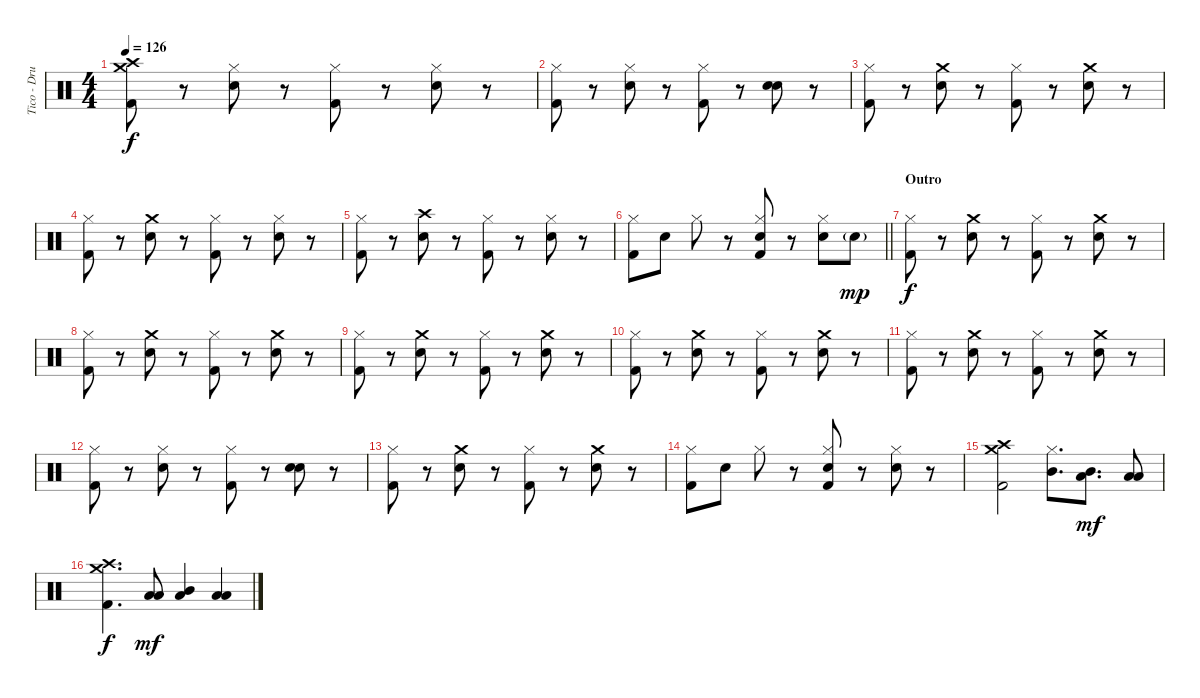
\track ("Tico - Drums" "Tico - Dru") {instrument percussion}
\staff {score}
\articulation defaults
\ts (4 4)
\tempo 126
\clef neutral
\ks c
("Crash medium (hit)" "Kick (hit) 2" "Crash high (hit)").8{dy f} r.8 ("Hi-Hat (closed)" "Snare (hit) 2").8 r.8 ("Hi-Hat (closed)" "Kick (hit) 2").8 r.8 ("Hi-Hat (closed)" "Snare (hit) 2").8 r.8 |
("Hi-Hat (closed)" "Kick (hit) 2").8 r.8 ("Hi-Hat (closed)" "Snare (hit) 2").8 r.8 ("Hi-Hat (closed)" "Kick (hit) 2").8 r.8 ("Snare (hit) 2" "Snare (hit) 2").8 r.8 |
("Hi-Hat (closed)" "Kick (hit) 2").8 r.8 ("Snare (hit) 2" "Crash medium (hit)").8 r.8 ("Hi-Hat (closed)" "Kick (hit) 2").8 r.8 ("Snare (hit) 2" "Crash medium (hit)").8 r.8 |
("Hi-Hat (closed)" "Kick (hit) 2").8 r.8 ("Snare (hit) 2" "Crash medium (hit)").8 r.8 ("Hi-Hat (closed)" "Kick (hit) 2").8 r.8 ("Hi-Hat (closed)" "Snare (hit) 2").8 r.8 |
("Hi-Hat (closed)" "Kick (hit) 2").8 r.8 ("Snare (hit) 2" "Crash high (hit)").8 r.8 ("Hi-Hat (closed)" "Kick (hit) 2").8 r.8 ("Hi-Hat (closed)" "Snare (hit) 2").8 r.8 |
\barLineRight lightlight
("Hi-Hat (closed)" "Kick (hit) 2").8 "Snare (hit) 2".8 "Hi-Hat (closed)".8 r.8 ("Hi-Hat (closed)" "Snare (hit) 2" "Kick (hit) 2").8 r.8 ("Hi-Hat (closed)" "Snare (hit) 2").8 "Snare (hit) 2"{g}.8{dy mp} |
\section ("" "Outro")
("Hi-Hat (closed)" "Kick (hit) 2").8{dy f} r.8 ("Snare (hit) 2" "Crash medium (hit)").8 r.8 ("Hi-Hat (closed)" "Kick (hit) 2").8 r.8 ("Snare (hit) 2" "Crash medium (hit)").8 r.8 |
("Hi-Hat (closed)" "Kick (hit) 2").8 r.8 ("Snare (hit) 2" "Crash medium (hit)").8 r.8 ("Hi-Hat (closed)" "Kick (hit) 2").8 r.8 ("Snare (hit) 2" "Crash medium (hit)").8 r.8 |
("Hi-Hat (closed)" "Kick (hit) 2").8 r.8 ("Snare (hit) 2" "Crash medium (hit)").8 r.8 ("Hi-Hat (closed)" "Kick (hit) 2").8 r.8 ("Snare (hit) 2" "Crash medium (hit)").8 r.8 |
("Hi-Hat (closed)" "Kick (hit) 2").8 r.8 ("Snare (hit) 2" "Crash medium (hit)").8 r.8 ("Hi-Hat (closed)" "Kick (hit) 2").8 r.8 ("Snare (hit) 2" "Crash medium (hit)").8 r.8 |
("Hi-Hat (closed)" "Kick (hit) 2").8 r.8 ("Snare (hit) 2" "Crash medium (hit)").8 r.8 ("Hi-Hat (closed)" "Kick (hit) 2").8 r.8 ("Snare (hit) 2" "Crash medium (hit)").8 r.8 |
("Hi-Hat (closed)" "Kick (hit) 2").8 r.8 ("Hi-Hat (closed)" "Snare (hit) 2").8 r.8 ("Hi-Hat (closed)" "Kick (hit) 2").8 r.8 ("Snare (hit) 2" "Snare (hit) 2").8 r.8 |
("Hi-Hat (closed)" "Kick (hit) 2").8 r.8 ("Snare (hit) 2" "Crash medium (hit)").8 r.8 ("Hi-Hat (closed)" "Kick (hit) 2").8 r.8 ("Snare (hit) 2" "Crash medium (hit)").8 r.8 |
("Hi-Hat (closed)" "Kick (hit) 2").8 "Snare (hit) 2".8 "Hi-Hat (closed)".8 r.8 ("Hi-Hat (closed)" "Snare (hit) 2" "Kick (hit) 2").8 r.8 ("Hi-Hat (closed)" "Snare (hit) 2").8 r.8 |
("Crash medium (hit)" "Kick (hit) 2" "Crash high (hit)").2 ("Hi-Hat (closed)" "Mid Tom (hit)").8{d} ("Low Tom (hit)" "Mid Tom (hit)").8{d dy mf} ("Low Floor Tom (hit)" "Low Tom (hit)").8 |
("Crash medium (hit)" "Kick (hit) 2" "Crash high (hit)").4{d dy f} ("Low Floor Tom (hit)" "Low Tom (hit)").8{dy mf} ("Low Floor Tom (hit)" "Mid Tom (hit)").4 ("Low Floor Tom (hit)" "Low Tom (hit)").4
